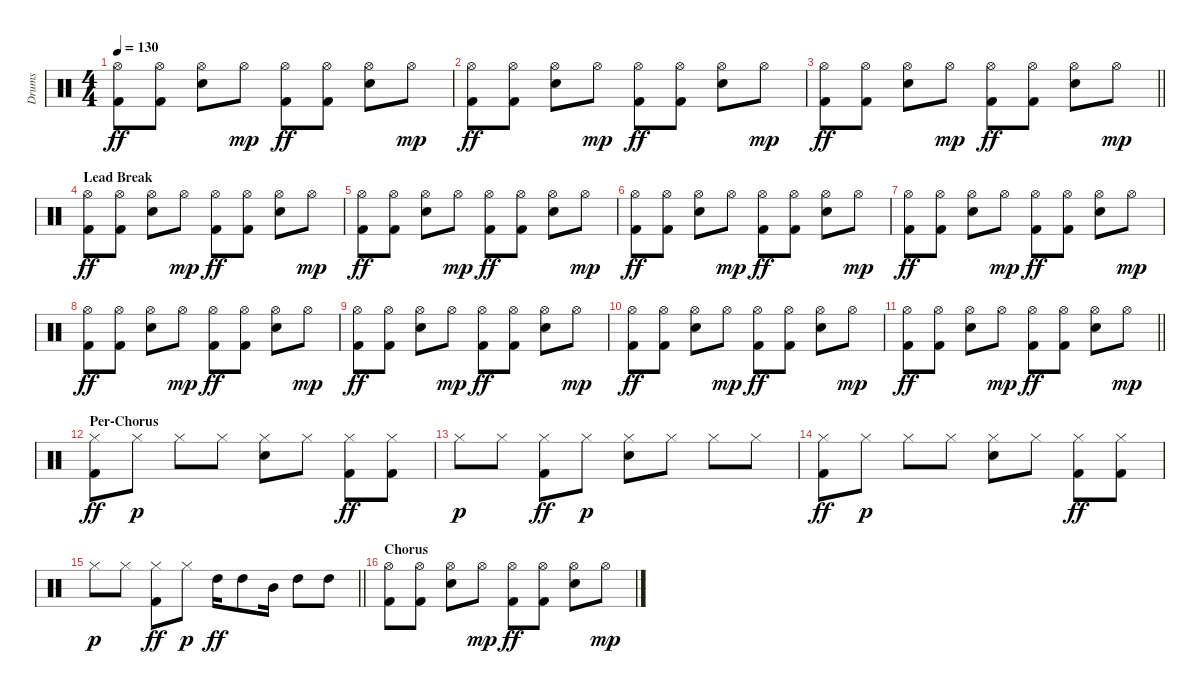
\track ("Drums" "Drums") {instrument percussion}
\staff
\articulation defaults
\ts (4 4)
\tempo 130
\clef neutral
\ks c
("Hi-Hat (open)" "Kick (hit) 2").8{dy ff} ("Hi-Hat (open)" "Kick (hit) 2").8 ("Hi-Hat (open)" "Snare (hit) 2").8 "Hi-Hat (open)".8{dy mp} ("Hi-Hat (open)" "Kick (hit) 2").8{dy ff} ("Hi-Hat (open)" "Kick (hit) 2").8 ("Hi-Hat (open)" "Snare (hit) 2").8 "Hi-Hat (open)".8{dy mp} |
("Hi-Hat (open)" "Kick (hit) 2").8{dy ff} ("Hi-Hat (open)" "Kick (hit) 2").8 ("Hi-Hat (open)" "Snare (hit) 2").8 "Hi-Hat (open)".8{dy mp} ("Hi-Hat (open)" "Kick (hit) 2").8{dy ff} ("Hi-Hat (open)" "Kick (hit) 2").8 ("Hi-Hat (open)" "Snare (hit) 2").8 "Hi-Hat (open)".8{dy mp} |
\barLineRight lightlight
("Hi-Hat (open)" "Kick (hit) 2").8{dy ff} ("Hi-Hat (open)" "Kick (hit) 2").8 ("Hi-Hat (open)" "Snare (hit) 2").8 "Hi-Hat (open)".8{dy mp} ("Hi-Hat (open)" "Kick (hit) 2").8{dy ff} ("Hi-Hat (open)" "Kick (hit) 2").8 ("Hi-Hat (open)" "Snare (hit) 2").8 "Hi-Hat (open)".8{dy mp} |
\section ("" "Lead Break")
("Hi-Hat (open)" "Kick (hit) 2").8{dy ff} ("Hi-Hat (open)" "Kick (hit) 2").8 ("Hi-Hat (open)" "Snare (hit) 2").8 "Hi-Hat (open)".8{dy mp} ("Hi-Hat (open)" "Kick (hit) 2").8{dy ff} ("Hi-Hat (open)" "Kick (hit) 2").8 ("Hi-Hat (open)" "Snare (hit) 2").8 "Hi-Hat (open)".8{dy mp} |
("Hi-Hat (open)" "Kick (hit) 2").8{dy ff} ("Hi-Hat (open)" "Kick (hit) 2").8 ("Hi-Hat (open)" "Snare (hit) 2").8 "Hi-Hat (open)".8{dy mp} ("Hi-Hat (open)" "Kick (hit) 2").8{dy ff} ("Hi-Hat (open)" "Kick (hit) 2").8 ("Hi-Hat (open)" "Snare (hit) 2").8 "Hi-Hat (open)".8{dy mp} |
("Hi-Hat (open)" "Kick (hit) 2").8{dy ff} ("Hi-Hat (open)" "Kick (hit) 2").8 ("Hi-Hat (open)" "Snare (hit) 2").8 "Hi-Hat (open)".8{dy mp} ("Hi-Hat (open)" "Kick (hit) 2").8{dy ff} ("Hi-Hat (open)" "Kick (hit) 2").8 ("Hi-Hat (open)" "Snare (hit) 2").8 "Hi-Hat (open)".8{dy mp} |
("Hi-Hat (open)" "Kick (hit) 2").8{dy ff} ("Hi-Hat (open)" "Kick (hit) 2").8 ("Hi-Hat (open)" "Snare (hit) 2").8 "Hi-Hat (open)".8{dy mp} ("Hi-Hat (open)" "Kick (hit) 2").8{dy ff} ("Hi-Hat (open)" "Kick (hit) 2").8 ("Hi-Hat (open)" "Snare (hit) 2").8 "Hi-Hat (open)".8{dy mp} |
("Hi-Hat (open)" "Kick (hit) 2").8{dy ff} ("Hi-Hat (open)" "Kick (hit) 2").8 ("Hi-Hat (open)" "Snare (hit) 2").8 "Hi-Hat (open)".8{dy mp} ("Hi-Hat (open)" "Kick (hit) 2").8{dy ff} ("Hi-Hat (open)" "Kick (hit) 2").8 ("Hi-Hat (open)" "Snare (hit) 2").8 "Hi-Hat (open)".8{dy mp} |
("Hi-Hat (open)" "Kick (hit) 2").8{dy ff} ("Hi-Hat (open)" "Kick (hit) 2").8 ("Hi-Hat (open)" "Snare (hit) 2").8 "Hi-Hat (open)".8{dy mp} ("Hi-Hat (open)" "Kick (hit) 2").8{dy ff} ("Hi-Hat (open)" "Kick (hit) 2").8 ("Hi-Hat (open)" "Snare (hit) 2").8 "Hi-Hat (open)".8{dy mp} |
("Hi-Hat (open)" "Kick (hit) 2").8{dy ff} ("Hi-Hat (open)" "Kick (hit) 2").8 ("Hi-Hat (open)" "Snare (hit) 2").8 "Hi-Hat (open)".8{dy mp} ("Hi-Hat (open)" "Kick (hit) 2").8{dy ff} ("Hi-Hat (open)" "Kick (hit) 2").8 ("Hi-Hat (open)" "Snare (hit) 2").8 "Hi-Hat (open)".8{dy mp} |
\barLineRight lightlight
("Hi-Hat (open)" "Kick (hit) 2").8{dy ff} ("Hi-Hat (open)" "Kick (hit) 2").8 ("Hi-Hat (open)" "Snare (hit) 2").8 "Hi-Hat (open)".8{dy mp} ("Hi-Hat (open)" "Kick (hit) 2").8{dy ff} ("Hi-Hat (open)" "Kick (hit) 2").8 ("Hi-Hat (open)" "Snare (hit) 2").8 "Hi-Hat (open)".8{dy mp} |
\section ("" "Per-Chorus")
("Hi-Hat (closed)" "Kick (hit) 2").8{dy ff} "Hi-Hat (closed)".8{dy p} "Hi-Hat (closed)".8 "Hi-Hat (closed)".8 ("Hi-Hat (closed)" "Snare (hit) 2").8 "Hi-Hat (closed)".8 ("Hi-Hat (closed)" "Kick (hit) 2").8{dy ff} ("Hi-Hat (closed)" "Kick (hit) 2").8 |
"Hi-Hat (closed)".8{dy p} "Hi-Hat (closed)".8 ("Hi-Hat (closed)" "Kick (hit) 2").8{dy ff} "Hi-Hat (closed)".8{dy p} ("Hi-Hat (closed)" "Snare (hit) 2").8 "Hi-Hat (closed)".8 "Hi-Hat (closed)".8 "Hi-Hat (closed)".8 |
("Hi-Hat (closed)" "Kick (hit) 2").8{dy ff} "Hi-Hat (closed)".8{dy p} "Hi-Hat (closed)".8 "Hi-Hat (closed)".8 ("Hi-Hat (closed)" "Snare (hit) 2").8 "Hi-Hat (closed)".8 ("Hi-Hat (closed)" "Kick (hit) 2").8{dy ff} ("Hi-Hat (closed)" "Kick (hit) 2").8 |
\barLineRight lightlight "Hi-Hat (closed)".8{dy p} "Hi-Hat (closed)".8
("Hi-Hat (closed)" "Kick (hit) 2").8{dy ff} "Hi-Hat (closed)".8{dy p} "High Tom (hit)".16{dy ff} "High Tom (hit)".8 "Mid Tom (hit)".16 "High Tom (hit)".8 "High Tom (hit)".8 |
\section ("" "Chorus")
("Hi-Hat (open)" "Kick (hit) 2").8 ("Hi-Hat (open)" "Kick (hit) 2").8 ("Hi-Hat (open)" "Snare (hit) 2").8 "Hi-Hat (open)".8{dy mp} ("Hi-Hat (open)" "Kick (hit) 2").8{dy ff} ("Hi-Hat (open)" "Kick (hit) 2").8 ("Hi-Hat (open)" "Snare (hit) 2").8 "Hi-Hat (open)".8{dy mp}
